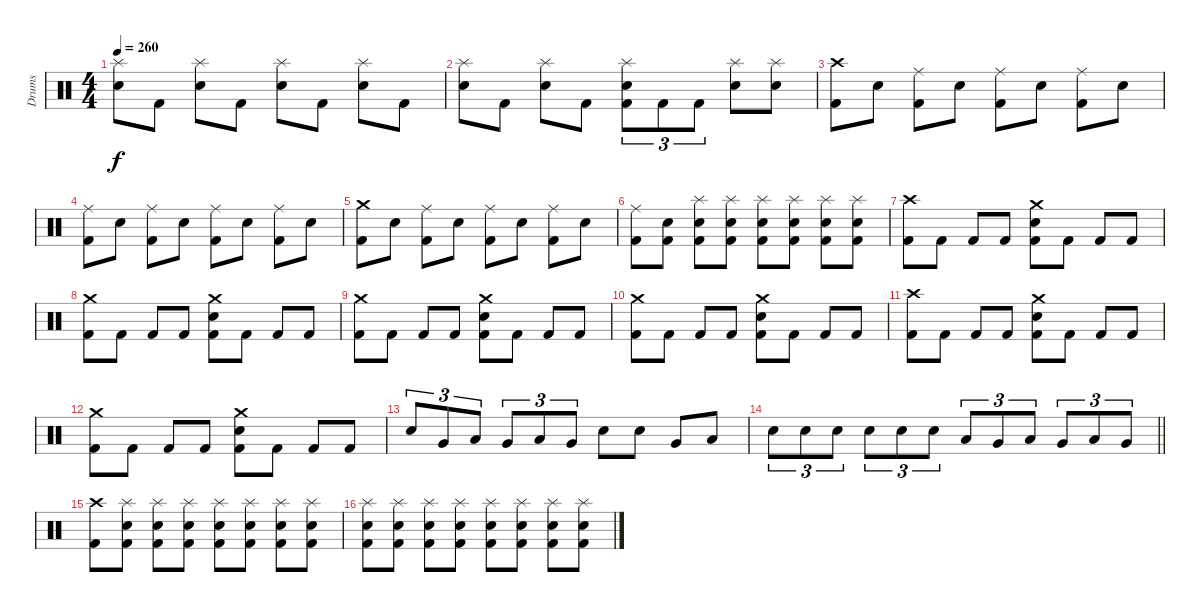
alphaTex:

\track ("Drums" "Drums") {instrument percussion}
\staff {score}
\articulation defaults
\ts (4 4)
\tempo 260
\clef neutral
\ks c
("Splash (hit)" "Electric Snare (hit)").8{dy f} "Kick (hit) 2".8 ("Splash (hit)" "Electric Snare (hit)").8 "Kick (hit) 2".8 ("Splash (hit)" "Electric Snare (hit)").8 "Kick (hit) 2".8 ("Splash (hit)" "Electric Snare (hit)").8 "Kick (hit) 2".8 |
("Splash (hit)" "Electric Snare (hit)").8 "Kick (hit) 2".8 ("Splash (hit)" "Electric Snare (hit)").8 "Kick (hit) 2".8 ("Splash (hit)" "Electric Snare (hit)" "Kick (hit) 2").8{tu (3 2)} "Kick (hit) 2".8{tu (3 2)} "Kick (hit) 2".8{tu (3 2)} ("Splash (hit)" "Electric Snare (hit)").8 ("Splash (hit)" "Electric Snare (hit)").8 |
("Crash high (hit)" "Kick (hit) 2").8 "Electric Snare (hit)".8 ("Ride (middle)" "Kick (hit) 2").8 "Electric Snare (hit)".8 ("Ride (middle)" "Kick (hit) 2").8 "Electric Snare (hit)".8 ("Ride (middle)" "Kick (hit) 2").8 "Electric Snare (hit)".8 |
("Ride (middle)" "Kick (hit) 2").8 "Electric Snare (hit)".8 ("Ride (middle)" "Kick (hit) 2").8 "Electric Snare (hit)".8 ("Ride (middle)" "Kick (hit) 2").8 "Electric Snare (hit)".8 ("Ride (middle)" "Kick (hit) 2").8 "Electric Snare (hit)".8 |
("Crash medium (hit)" "Kick (hit) 2").8 "Electric Snare (hit)".8 ("Ride (middle)" "Kick (hit) 2").8 "Electric Snare (hit)".8 ("Ride (middle)" "Kick (hit) 2").8 "Electric Snare (hit)".8 ("Ride (middle)" "Kick (hit) 2").8 "Electric Snare (hit)".8 |
("Ride (middle)" "Kick (hit) 2").8 ("Electric Snare (hit)" "Kick (hit) 2").8 ("Splash (hit)" "Electric Snare (hit)" "Kick (hit) 2").8 ("Splash (hit)" "Electric Snare (hit)" "Kick (hit) 2").8 ("Splash (hit)" "Electric Snare (hit)" "Kick (hit) 2").8 ("Splash (hit)" "Electric Snare (hit)" "Kick (hit) 2").8 ("Splash (hit)" "Electric Snare (hit)" "Kick (hit) 2").8 ("Splash (hit)" "Electric Snare (hit)" "Kick (hit) 2").8 |
("Crash high (hit)" "Kick (hit) 2").8 "Kick (hit) 2".8 "Kick (hit) 2".8 "Kick (hit) 2".8 ("Crash medium (hit)" "Electric Snare (hit)" "Kick (hit) 2").8 "Kick (hit) 2".8 "Kick (hit) 2".8 "Kick (hit) 2".8 |
("Crash medium (hit)" "Kick (hit) 2").8 "Kick (hit) 2".8 "Kick (hit) 2".8 "Kick (hit) 2".8 ("Crash medium (hit)" "Electric Snare (hit)" "Kick (hit) 2").8 "Kick (hit) 2".8 "Kick (hit) 2".8 "Kick (hit) 2".8 |
("Crash medium (hit)" "Kick (hit) 2").8 "Kick (hit) 2".8 "Kick (hit) 2".8 "Kick (hit) 2".8 ("Crash medium (hit)" "Electric Snare (hit)" "Kick (hit) 2").8 "Kick (hit) 2".8 "Kick (hit) 2".8 "Kick (hit) 2".8 |
("Crash medium (hit)" "Kick (hit) 2").8 "Kick (hit) 2".8 "Kick (hit) 2".8 "Kick (hit) 2".8 ("Crash medium (hit)" "Electric Snare (hit)" "Kick (hit) 2").8 "Kick (hit) 2".8 "Kick (hit) 2".8 "Kick (hit) 2".8 |
("Crash high (hit)" "Kick (hit) 2").8 "Kick (hit) 2".8 "Kick (hit) 2".8 "Kick (hit) 2".8 ("Crash medium (hit)" "Electric Snare (hit)" "Kick (hit) 2").8 "Kick (hit) 2".8 "Kick (hit) 2".8 "Kick (hit) 2".8 |
("Crash medium (hit)" "Kick (hit) 2").8 "Kick (hit) 2".8 "Kick (hit) 2".8 "Kick (hit) 2".8 ("Crash medium (hit)" "Electric Snare (hit)" "Kick (hit) 2").8 "Kick (hit) 2".8 "Kick (hit) 2".8 "Kick (hit) 2".8 |
"Electric Snare (hit)".8{tu (3 2)} "Very Low Tom (hit)".8{tu (3 2)} "Low Tom (hit)".8{tu (3 2)} "Very Low Tom (hit)".8{tu (3 2)} "Low Floor Tom (hit)".8{tu (3 2)} "Very Low Tom (hit)".8{tu (3 2)} "Electric Snare (hit)".8 "Electric Snare (hit)".8 "Very Low Tom (hit)".8 "Low Floor Tom (hit)".8 |
\barLineRight lightlight "Electric Snare (hit)".8{tu (3 2)} "Electric Snare (hit)".8{tu (3 2)} "Electric Snare (hit)".8{tu (3 2)} "Electric Snare (hit)".8{tu (3 2)} "Electric Snare (hit)".8{tu (3 2)} "Electric Snare (hit)".8{tu (3 2)} "Low Tom (hit)".8{tu (3 2)} "Very Low Tom (hit)".8{tu (3 2)} "Low Tom (hit)".8{tu (3 2)} "Very Low Tom (hit)".8{tu (3 2)} "Low Floor Tom (hit)".8{tu (3 2)} "Very Low Tom (hit)".8{tu (3 2)}
|
("Crash high (hit)" "Kick (hit) 2").8 ("Splash (hit)" "Electric Snare (hit)" "Kick (hit) 2").8 ("Splash (hit)" "Electric Snare (hit)" "Kick (hit) 2").8 ("Splash (hit)" "Electric Snare (hit)" "Kick (hit) 2").8 ("Splash (hit)" "Electric Snare (hit)" "Kick (hit) 2").8 ("Splash (hit)" "Electric Snare (hit)" "Kick (hit) 2").8 ("Splash (hit)" "Electric Snare (hit)" "Kick (hit) 2").8 ("Splash (hit)" "Electric Snare (hit)" "Kick (hit) 2").8 |
("Splash (hit)" "Electric Snare (hit)" "Kick (hit) 2").8 ("Splash (hit)" "Electric Snare (hit)" "Kick (hit) 2").8 ("Splash (hit)" "Electric Snare (hit)" "Kick (hit) 2").8 ("Splash (hit)" "Electric Snare (hit)" "Kick (hit) 2").8 ("Splash (hit)" "Electric Snare (hit)" "Kick (hit) 2").8 ("Splash (hit)" "Electric Snare (hit)" "Kick (hit) 2").8 ("Splash (hit)" "Electric Snare (hit)" "Kick (hit) 2").8 ("Splash (hit)" "Electric Snare (hit)" "Kick (hit) 2").8
